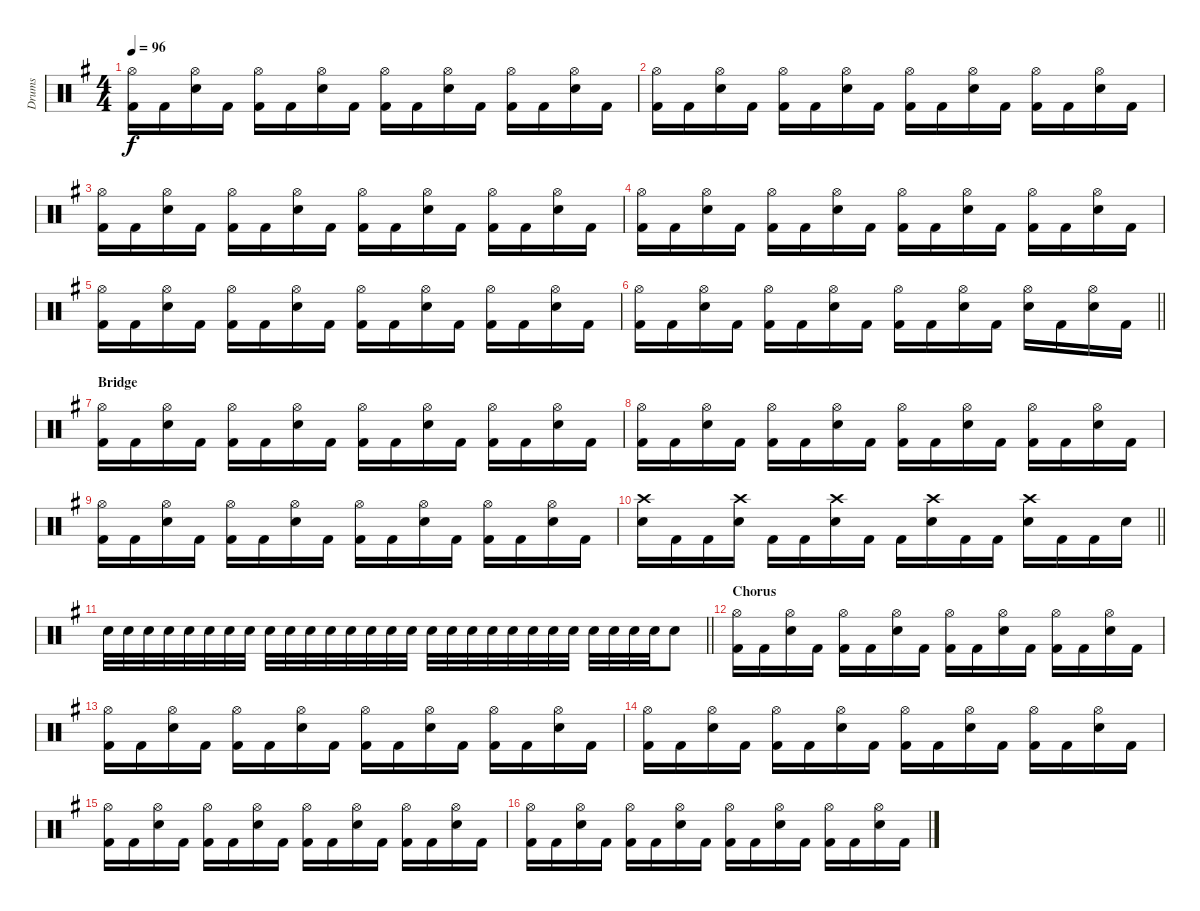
\track ("Drums" "Drums") {instrument percussion}
\staff {score}
\articulation defaults
\ts (4 4)
\tempo 96
\clef neutral
\ks g
("Hi-Hat (open)" "Kick (hit) 2").16{dy f} "Kick (hit) 2".16 ("Hi-Hat (open)" "Electric Snare (hit)").16 "Kick (hit) 2".16 ("Hi-Hat (open)" "Kick (hit) 2").16 "Kick (hit) 2".16 ("Hi-Hat (open)" "Electric Snare (hit)").16 "Kick (hit) 2".16 ("Hi-Hat (open)" "Kick (hit) 2").16 "Kick (hit) 2".16 ("Hi-Hat (open)" "Electric Snare (hit)").16 "Kick (hit) 2".16 ("Hi-Hat (open)" "Kick (hit) 2").16 "Kick (hit) 2".16 ("Hi-Hat (open)" "Electric Snare (hit)").16 "Kick (hit) 2".16 |
("Hi-Hat (open)" "Kick (hit) 2").16 "Kick (hit) 2".16 ("Hi-Hat (open)" "Electric Snare (hit)").16 "Kick (hit) 2".16 ("Hi-Hat (open)" "Kick (hit) 2").16 "Kick (hit) 2".16 ("Hi-Hat (open)" "Electric Snare (hit)").16 "Kick (hit) 2".16 ("Hi-Hat (open)" "Kick (hit) 2").16 "Kick (hit) 2".16 ("Hi-Hat (open)" "Electric Snare (hit)").16 "Kick (hit) 2".16 ("Hi-Hat (open)" "Kick (hit) 2").16 "Kick (hit) 2".16 ("Hi-Hat (open)" "Electric Snare (hit)").16 "Kick (hit) 2".16 |
("Hi-Hat (open)" "Kick (hit) 2").16 "Kick (hit) 2".16 ("Hi-Hat (open)" "Electric Snare (hit)").16 "Kick (hit) 2".16 ("Hi-Hat (open)" "Kick (hit) 2").16 "Kick (hit) 2".16 ("Hi-Hat (open)" "Electric Snare (hit)").16 "Kick (hit) 2".16 ("Hi-Hat (open)" "Kick (hit) 2").16 "Kick (hit) 2".16 ("Hi-Hat (open)" "Electric Snare (hit)").16 "Kick (hit) 2".16 ("Hi-Hat (open)" "Kick (hit) 2").16 "Kick (hit) 2".16 ("Hi-Hat (open)" "Electric Snare (hit)").16 "Kick (hit) 2".16 |
("Hi-Hat (open)" "Kick (hit) 2").16 "Kick (hit) 2".16 ("Hi-Hat (open)" "Electric Snare (hit)").16 "Kick (hit) 2".16 ("Hi-Hat (open)" "Kick (hit) 2").16 "Kick (hit) 2".16 ("Hi-Hat (open)" "Electric Snare (hit)").16 "Kick (hit) 2".16 ("Hi-Hat (open)" "Kick (hit) 2").16 "Kick (hit) 2".16 ("Hi-Hat (open)" "Electric Snare (hit)").16 "Kick (hit) 2".16 ("Hi-Hat (open)" "Kick (hit) 2").16 "Kick (hit) 2".16 ("Hi-Hat (open)" "Electric Snare (hit)").16 "Kick (hit) 2".16 |
("Hi-Hat (open)" "Kick (hit) 2").16 "Kick (hit) 2".16 ("Hi-Hat (open)" "Electric Snare (hit)").16 "Kick (hit) 2".16 ("Hi-Hat (open)" "Kick (hit) 2").16 "Kick (hit) 2".16 ("Hi-Hat (open)" "Electric Snare (hit)").16 "Kick (hit) 2".16 ("Hi-Hat (open)" "Kick (hit) 2").16 "Kick (hit) 2".16 ("Hi-Hat (open)" "Electric Snare (hit)").16 "Kick (hit) 2".16 ("Hi-Hat (open)" "Kick (hit) 2").16 "Kick (hit) 2".16 ("Hi-Hat (open)" "Electric Snare (hit)").16 "Kick (hit) 2".16 |
\barLineRight lightlight
("Hi-Hat (open)" "Kick (hit) 2").16 "Kick (hit) 2".16 ("Hi-Hat (open)" "Electric Snare (hit)").16 "Kick (hit) 2".16 ("Hi-Hat (open)" "Kick (hit) 2").16 "Kick (hit) 2".16 ("Hi-Hat (open)" "Electric Snare (hit)").16 "Kick (hit) 2".16 ("Hi-Hat (open)" "Kick (hit) 2").16 "Kick (hit) 2".16 ("Hi-Hat (open)" "Electric Snare (hit)").16 "Kick (hit) 2".16 ("Hi-Hat (open)" "Electric Snare (hit)").16 "Kick (hit) 2".16 ("Hi-Hat (open)" "Electric Snare (hit)").16 "Kick (hit) 2".16 |
\section ("" "Bridge")
("Hi-Hat (open)" "Kick (hit) 2").16 "Kick (hit) 2".16 ("Hi-Hat (open)" "Electric Snare (hit)").16 "Kick (hit) 2".16 ("Hi-Hat (open)" "Kick (hit) 2").16 "Kick (hit) 2".16 ("Hi-Hat (open)" "Electric Snare (hit)").16 "Kick (hit) 2".16 ("Hi-Hat (open)" "Kick (hit) 2").16 "Kick (hit) 2".16 ("Hi-Hat (open)" "Electric Snare (hit)").16 "Kick (hit) 2".16 ("Hi-Hat (open)" "Kick (hit) 2").16 "Kick (hit) 2".16 ("Hi-Hat (open)" "Electric Snare (hit)").16 "Kick (hit) 2".16 |
("Hi-Hat (open)" "Kick (hit) 2").16 "Kick (hit) 2".16 ("Hi-Hat (open)" "Electric Snare (hit)").16 "Kick (hit) 2".16 ("Hi-Hat (open)" "Kick (hit) 2").16 "Kick (hit) 2".16 ("Hi-Hat (open)" "Electric Snare (hit)").16 "Kick (hit) 2".16 ("Hi-Hat (open)" "Kick (hit) 2").16 "Kick (hit) 2".16 ("Hi-Hat (open)" "Electric Snare (hit)").16 "Kick (hit) 2".16 ("Hi-Hat (open)" "Kick (hit) 2").16 "Kick (hit) 2".16 ("Hi-Hat (open)" "Electric Snare (hit)").16 "Kick (hit) 2".16 |
("Hi-Hat (open)" "Kick (hit) 2").16 "Kick (hit) 2".16 ("Hi-Hat (open)" "Electric Snare (hit)").16 "Kick (hit) 2".16 ("Hi-Hat (open)" "Kick (hit) 2").16 "Kick (hit) 2".16 ("Hi-Hat (open)" "Electric Snare (hit)").16 "Kick (hit) 2".16 ("Hi-Hat (open)" "Kick (hit) 2").16 "Kick (hit) 2".16 ("Hi-Hat (open)" "Electric Snare (hit)").16 "Kick (hit) 2".16 ("Hi-Hat (open)" "Kick (hit) 2").16 "Kick (hit) 2".16 ("Hi-Hat (open)" "Electric Snare (hit)").16 "Kick (hit) 2".16 |
\barLineRight lightlight
("Crash high (hit)" "Electric Snare (hit)").16 "Kick (hit) 2".16 "Kick (hit) 2".16 ("Crash high (hit)" "Electric Snare (hit)").16 "Kick (hit) 2".16 "Kick (hit) 2".16 ("Crash high (hit)" "Electric Snare (hit)").16 "Kick (hit) 2".16 "Kick (hit) 2".16 ("Crash high (hit)" "Electric Snare (hit)").16 "Kick (hit) 2".16 "Kick (hit) 2".16 ("Crash high (hit)" "Electric Snare (hit)").16 "Kick (hit) 2".16 "Kick (hit) 2".16 "Electric Snare (hit)".16 |
\barLineRight lightlight "Electric Snare (hit)".32 "Electric Snare (hit)".32 "Electric Snare (hit)".32 "Electric Snare (hit)".32 "Electric Snare (hit)".32 "Electric Snare (hit)".32 "Electric Snare (hit)".32 "Electric Snare (hit)".32 "Electric Snare (hit)".32 "Electric Snare (hit)".32 "Electric Snare (hit)".32 "Electric Snare (hit)".32 "Electric Snare (hit)".32 "Electric Snare (hit)".32 "Electric Snare (hit)".32 "Electric Snare (hit)".32 "Electric Snare (hit)".32 "Electric Snare (hit)".32 "Electric Snare (hit)".32 "Electric Snare (hit)".32 "Electric Snare (hit)".32 "Electric Snare (hit)".32 "Electric Snare (hit)".32 "Electric Snare (hit)".32 "Electric Snare (hit)".32 "Electric Snare (hit)".32 "Electric Snare (hit)".32 "Electric Snare (hit)".32 "Electric Snare (hit)".8
|
\section ("" "Chorus")
("Hi-Hat (open)" "Kick (hit) 2").16 "Kick (hit) 2".16 ("Hi-Hat (open)" "Electric Snare (hit)").16 "Kick (hit) 2".16 ("Hi-Hat (open)" "Kick (hit) 2").16 "Kick (hit) 2".16 ("Hi-Hat (open)" "Electric Snare (hit)").16 "Kick (hit) 2".16 ("Hi-Hat (open)" "Kick (hit) 2").16 "Kick (hit) 2".16 ("Hi-Hat (open)" "Electric Snare (hit)").16 "Kick (hit) 2".16 ("Hi-Hat (open)" "Kick (hit) 2").16 "Kick (hit) 2".16 ("Hi-Hat (open)" "Electric Snare (hit)").16 "Kick (hit) 2".16 |
("Hi-Hat (open)" "Kick (hit) 2").16 "Kick (hit) 2".16 ("Hi-Hat (open)" "Electric Snare (hit)").16 "Kick (hit) 2".16 ("Hi-Hat (open)" "Kick (hit) 2").16 "Kick (hit) 2".16 ("Hi-Hat (open)" "Electric Snare (hit)").16 "Kick (hit) 2".16 ("Hi-Hat (open)" "Kick (hit) 2").16 "Kick (hit) 2".16 ("Hi-Hat (open)" "Electric Snare (hit)").16 "Kick (hit) 2".16 ("Hi-Hat (open)" "Kick (hit) 2").16 "Kick (hit) 2".16 ("Hi-Hat (open)" "Electric Snare (hit)").16 "Kick (hit) 2".16 |
("Hi-Hat (open)" "Kick (hit) 2").16 "Kick (hit) 2".16 ("Hi-Hat (open)" "Electric Snare (hit)").16 "Kick (hit) 2".16 ("Hi-Hat (open)" "Kick (hit) 2").16 "Kick (hit) 2".16 ("Hi-Hat (open)" "Electric Snare (hit)").16 "Kick (hit) 2".16 ("Hi-Hat (open)" "Kick (hit) 2").16 "Kick (hit) 2".16 ("Hi-Hat (open)" "Electric Snare (hit)").16 "Kick (hit) 2".16 ("Hi-Hat (open)" "Kick (hit) 2").16 "Kick (hit) 2".16 ("Hi-Hat (open)" "Electric Snare (hit)").16 "Kick (hit) 2".16 |
("Hi-Hat (open)" "Kick (hit) 2").16 "Kick (hit) 2".16 ("Hi-Hat (open)" "Electric Snare (hit)").16 "Kick (hit) 2".16 ("Hi-Hat (open)" "Kick (hit) 2").16 "Kick (hit) 2".16 ("Hi-Hat (open)" "Electric Snare (hit)").16 "Kick (hit) 2".16 ("Hi-Hat (open)" "Kick (hit) 2").16 "Kick (hit) 2".16 ("Hi-Hat (open)" "Electric Snare (hit)").16 "Kick (hit) 2".16 ("Hi-Hat (open)" "Kick (hit) 2").16 "Kick (hit) 2".16 ("Hi-Hat (open)" "Electric Snare (hit)").16 "Kick (hit) 2".16 |
("Hi-Hat (open)" "Kick (hit) 2").16 "Kick (hit) 2".16 ("Hi-Hat (open)" "Electric Snare (hit)").16 "Kick (hit) 2".16 ("Hi-Hat (open)" "Kick (hit) 2").16 "Kick (hit) 2".16 ("Hi-Hat (open)" "Electric Snare (hit)").16 "Kick (hit) 2".16 ("Hi-Hat (open)" "Kick (hit) 2").16 "Kick (hit) 2".16 ("Hi-Hat (open)" "Electric Snare (hit)").16 "Kick (hit) 2".16 ("Hi-Hat (open)" "Kick (hit) 2").16 "Kick (hit) 2".16 ("Hi-Hat (open)" "Electric Snare (hit)").16 "Kick (hit) 2".16
